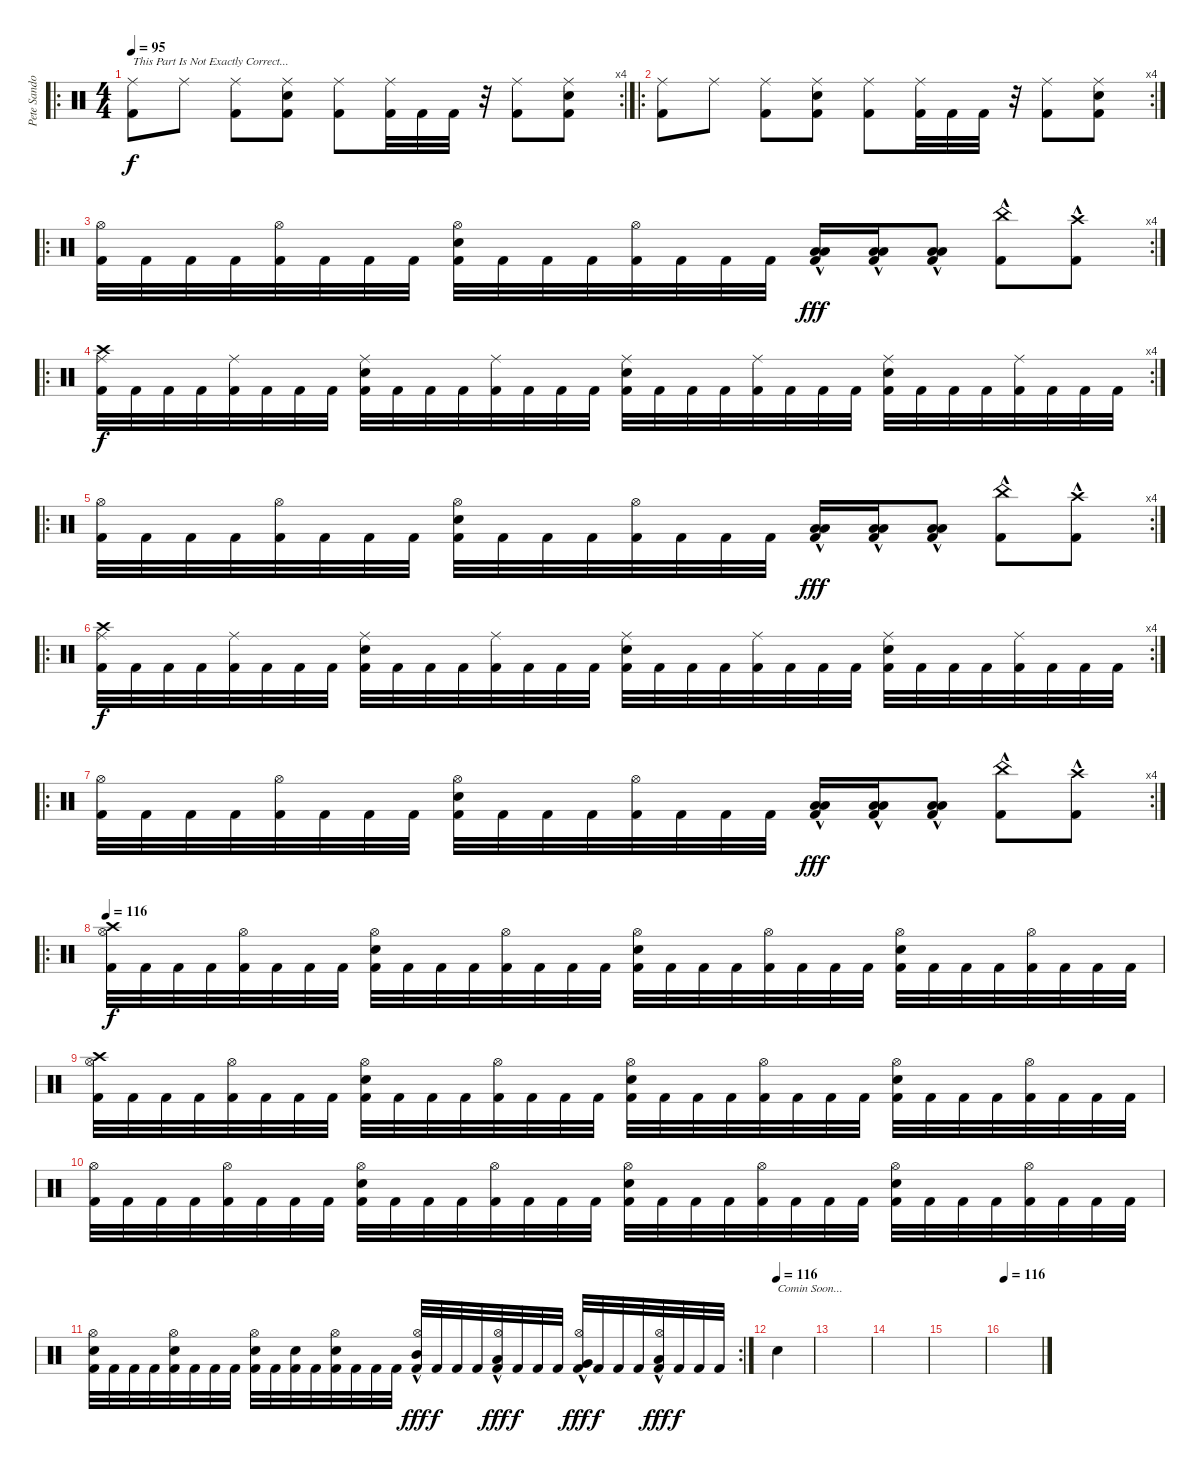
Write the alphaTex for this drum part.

\track ("Pete Sandoval" "Pete Sando") {instrument percussion}
\staff {score}
\articulation defaults
\ro
\rc 4
\ts (4 4)
\tempo 95
\clef neutral
\ks c
("Ride (middle)" "Kick (hit) 2").8{txt "This Part Is Not Exactly Correct..." dy f} "Ride (middle)".8 ("Ride (middle)" "Kick (hit) 2").8 ("Ride (middle)" "Electric Snare (hit)" "Kick (hit) 2").8 ("Ride (middle)" "Kick (hit) 2").8 ("Ride (middle)" "Kick (hit) 2").32 "Kick (hit) 2".32 "Kick (hit) 2".32 r.32 ("Ride (middle)" "Kick (hit) 2").8 ("Ride (middle)" "Electric Snare (hit)" "Kick (hit) 2").8 |
\ro
\rc 4
("Ride (middle)" "Kick (hit) 2").8 "Ride (middle)".8 ("Ride (middle)" "Kick (hit) 2").8 ("Ride (middle)" "Electric Snare (hit)" "Kick (hit) 2").8 ("Ride (middle)" "Kick (hit) 2").8 ("Ride (middle)" "Kick (hit) 2").32 "Kick (hit) 2".32 "Kick (hit) 2".32 r.32 ("Ride (middle)" "Kick (hit) 2").8 ("Ride (middle)" "Electric Snare (hit)" "Kick (hit) 2").8 |
\ro
\rc 4
("Hi-Hat (open)" "Kick (hit) 2").32 "Kick (hit) 2".32 "Kick (hit) 2".32 "Kick (hit) 2".32 ("Hi-Hat (open)" "Kick (hit) 2").32 "Kick (hit) 2".32 "Kick (hit) 2".32 "Kick (hit) 2".32 ("Hi-Hat (open)" "Electric Snare (hit)" "Kick (hit) 2").32 "Kick (hit) 2".32 "Kick (hit) 2".32 "Kick (hit) 2".32 ("Hi-Hat (open)" "Kick (hit) 2").32 "Kick (hit) 2".32 "Kick (hit) 2".32 "Kick (hit) 2".32 ("Low Tom (hit)"{hac} "Low Floor Tom (hit)"{hac} "Kick (hit) 2").16{dy fff} ("Low Tom (hit)"{hac} "Low Floor Tom (hit)"{hac} "Kick (hit) 2").16 ("Low Tom (hit)"{hac} "Low Floor Tom (hit)"{hac} "Kick (hit) 2").8 ("China (hit)"{hac} "Kick (hit) 2").8 ("Crash high (hit)"{hac} "Kick (hit) 2").8 |
\ro
\rc 4
("Crash high (hit)" "Ride (middle)" "Kick (hit) 2").32{dy f} "Kick (hit) 2".32 "Kick (hit) 2".32 "Kick (hit) 2".32 ("Ride (middle)" "Kick (hit) 2").32 "Kick (hit) 2".32 "Kick (hit) 2".32 "Kick (hit) 2".32 ("Electric Snare (hit)" "Ride (middle)" "Kick (hit) 2").32 "Kick (hit) 2".32 "Kick (hit) 2".32 "Kick (hit) 2".32 ("Ride (middle)" "Kick (hit) 2").32 "Kick (hit) 2".32 "Kick (hit) 2".32 "Kick (hit) 2".32 ("Electric Snare (hit)" "Ride (middle)" "Kick (hit) 2").32 "Kick (hit) 2".32 "Kick (hit) 2".32 "Kick (hit) 2".32 ("Ride (middle)" "Kick (hit) 2").32 "Kick (hit) 2".32 "Kick (hit) 2".32 "Kick (hit) 2".32 ("Electric Snare (hit)" "Ride (middle)" "Kick (hit) 2").32 "Kick (hit) 2".32 "Kick (hit) 2".32 "Kick (hit) 2".32 ("Ride (middle)" "Kick (hit) 2").32 "Kick (hit) 2".32 "Kick (hit) 2".32 "Kick (hit) 2".32 |
\ro
\rc 4
("Hi-Hat (open)" "Kick (hit) 2").32 "Kick (hit) 2".32 "Kick (hit) 2".32 "Kick (hit) 2".32 ("Hi-Hat (open)" "Kick (hit) 2").32 "Kick (hit) 2".32 "Kick (hit) 2".32 "Kick (hit) 2".32 ("Hi-Hat (open)" "Electric Snare (hit)" "Kick (hit) 2").32 "Kick (hit) 2".32 "Kick (hit) 2".32 "Kick (hit) 2".32 ("Hi-Hat (open)" "Kick (hit) 2").32 "Kick (hit) 2".32 "Kick (hit) 2".32 "Kick (hit) 2".32 ("Low Tom (hit)"{hac} "Low Floor Tom (hit)"{hac} "Kick (hit) 2").16{dy fff} ("Low Tom (hit)"{hac} "Low Floor Tom (hit)"{hac} "Kick (hit) 2").16 ("Low Tom (hit)"{hac} "Low Floor Tom (hit)"{hac} "Kick (hit) 2").8 ("China (hit)"{hac} "Kick (hit) 2").8 ("Crash high (hit)"{hac} "Kick (hit) 2").8 |
\ro
\rc 4
("Crash high (hit)" "Ride (middle)" "Kick (hit) 2").32{dy f} "Kick (hit) 2".32 "Kick (hit) 2".32 "Kick (hit) 2".32 ("Ride (middle)" "Kick (hit) 2").32 "Kick (hit) 2".32 "Kick (hit) 2".32 "Kick (hit) 2".32 ("Electric Snare (hit)" "Ride (middle)" "Kick (hit) 2").32 "Kick (hit) 2".32 "Kick (hit) 2".32 "Kick (hit) 2".32 ("Ride (middle)" "Kick (hit) 2").32 "Kick (hit) 2".32 "Kick (hit) 2".32 "Kick (hit) 2".32 ("Electric Snare (hit)" "Ride (middle)" "Kick (hit) 2").32 "Kick (hit) 2".32 "Kick (hit) 2".32 "Kick (hit) 2".32 ("Ride (middle)" "Kick (hit) 2").32 "Kick (hit) 2".32 "Kick (hit) 2".32 "Kick (hit) 2".32 ("Electric Snare (hit)" "Ride (middle)" "Kick (hit) 2").32 "Kick (hit) 2".32 "Kick (hit) 2".32 "Kick (hit) 2".32 ("Ride (middle)" "Kick (hit) 2").32 "Kick (hit) 2".32 "Kick (hit) 2".32 "Kick (hit) 2".32 |
\ro
\rc 4
("Hi-Hat (open)" "Kick (hit) 2").32 "Kick (hit) 2".32 "Kick (hit) 2".32 "Kick (hit) 2".32 ("Hi-Hat (open)" "Kick (hit) 2").32 "Kick (hit) 2".32 "Kick (hit) 2".32 "Kick (hit) 2".32 ("Hi-Hat (open)" "Electric Snare (hit)" "Kick (hit) 2").32 "Kick (hit) 2".32 "Kick (hit) 2".32 "Kick (hit) 2".32 ("Hi-Hat (open)" "Kick (hit) 2").32 "Kick (hit) 2".32 "Kick (hit) 2".32 "Kick (hit) 2".32 ("Low Tom (hit)"{hac} "Low Floor Tom (hit)"{hac} "Kick (hit) 2").16{dy fff} ("Low Tom (hit)"{hac} "Low Floor Tom (hit)"{hac} "Kick (hit) 2").16 ("Low Tom (hit)"{hac} "Low Floor Tom (hit)"{hac} "Kick (hit) 2").8 ("China (hit)"{hac} "Kick (hit) 2").8 ("Crash high (hit)"{hac} "Kick (hit) 2").8 |
\ro
\tempo 116
("Crash high (hit)" "Hi-Hat (open)" "Kick (hit) 2").32{dy f} "Kick (hit) 2".32 "Kick (hit) 2".32 "Kick (hit) 2".32 ("Hi-Hat (open)" "Kick (hit) 2").32 "Kick (hit) 2".32 "Kick (hit) 2".32 "Kick (hit) 2".32 ("Electric Snare (hit)" "Hi-Hat (open)" "Kick (hit) 2").32 "Kick (hit) 2".32 "Kick (hit) 2".32 "Kick (hit) 2".32 ("Hi-Hat (open)" "Kick (hit) 2").32 "Kick (hit) 2".32 "Kick (hit) 2".32 "Kick (hit) 2".32 ("Electric Snare (hit)" "Hi-Hat (open)" "Kick (hit) 2").32 "Kick (hit) 2".32 "Kick (hit) 2".32 "Kick (hit) 2".32 ("Hi-Hat (open)" "Kick (hit) 2").32 "Kick (hit) 2".32 "Kick (hit) 2".32 "Kick (hit) 2".32 ("Electric Snare (hit)" "Hi-Hat (open)" "Kick (hit) 2").32 "Kick (hit) 2".32 "Kick (hit) 2".32 "Kick (hit) 2".32 ("Hi-Hat (open)" "Kick (hit) 2").32 "Kick (hit) 2".32 "Kick (hit) 2".32 "Kick (hit) 2".32 |
("Crash high (hit)" "Hi-Hat (open)" "Kick (hit) 2").32 "Kick (hit) 2".32 "Kick (hit) 2".32 "Kick (hit) 2".32 ("Hi-Hat (open)" "Kick (hit) 2").32 "Kick (hit) 2".32 "Kick (hit) 2".32 "Kick (hit) 2".32 ("Electric Snare (hit)" "Hi-Hat (open)" "Kick (hit) 2").32 "Kick (hit) 2".32 "Kick (hit) 2".32 "Kick (hit) 2".32 ("Hi-Hat (open)" "Kick (hit) 2").32 "Kick (hit) 2".32 "Kick (hit) 2".32 "Kick (hit) 2".32 ("Electric Snare (hit)" "Hi-Hat (open)" "Kick (hit) 2").32 "Kick (hit) 2".32 "Kick (hit) 2".32 "Kick (hit) 2".32 ("Hi-Hat (open)" "Kick (hit) 2").32 "Kick (hit) 2".32 "Kick (hit) 2".32 "Kick (hit) 2".32 ("Electric Snare (hit)" "Hi-Hat (open)" "Kick (hit) 2").32 "Kick (hit) 2".32 "Kick (hit) 2".32 "Kick (hit) 2".32 ("Hi-Hat (open)" "Kick (hit) 2").32 "Kick (hit) 2".32 "Kick (hit) 2".32 "Kick (hit) 2".32 |
("Hi-Hat (open)" "Kick (hit) 2").32 "Kick (hit) 2".32 "Kick (hit) 2".32 "Kick (hit) 2".32 ("Hi-Hat (open)" "Kick (hit) 2").32 "Kick (hit) 2".32 "Kick (hit) 2".32 "Kick (hit) 2".32 ("Electric Snare (hit)" "Hi-Hat (open)" "Kick (hit) 2").32 "Kick (hit) 2".32 "Kick (hit) 2".32 "Kick (hit) 2".32 ("Hi-Hat (open)" "Kick (hit) 2").32 "Kick (hit) 2".32 "Kick (hit) 2".32 "Kick (hit) 2".32 ("Electric Snare (hit)" "Hi-Hat (open)" "Kick (hit) 2").32 "Kick (hit) 2".32 "Kick (hit) 2".32 "Kick (hit) 2".32 ("Hi-Hat (open)" "Kick (hit) 2").32 "Kick (hit) 2".32 "Kick (hit) 2".32 "Kick (hit) 2".32 ("Electric Snare (hit)" "Hi-Hat (open)" "Kick (hit) 2").32 "Kick (hit) 2".32 "Kick (hit) 2".32 "Kick (hit) 2".32 ("Hi-Hat (open)" "Kick (hit) 2").32 "Kick (hit) 2".32 "Kick (hit) 2".32 "Kick (hit) 2".32 |
\rc 2
("Electric Snare (hit)" "Hi-Hat (open)" "Kick (hit) 2").32 "Kick (hit) 2".32 "Kick (hit) 2".32 "Kick (hit) 2".32 ("Electric Snare (hit)" "Hi-Hat (open)" "Kick (hit) 2").32 "Kick (hit) 2".32 "Kick (hit) 2".32 "Kick (hit) 2".32 ("Electric Snare (hit)" "Hi-Hat (open)" "Kick (hit) 2").32 "Kick (hit) 2".32 ("Electric Snare (hit)" "Kick (hit) 2").32 "Kick (hit) 2".32 ("Electric Snare (hit)" "Hi-Hat (open)" "Kick (hit) 2").32 "Kick (hit) 2".32 "Kick (hit) 2".32 "Kick (hit) 2".32 ("Mid Tom (hit)"{hac} "Hi-Hat (open)" "Kick (hit) 2").32{dy fff} "Kick (hit) 2".32{dy f} "Kick (hit) 2".32 "Kick (hit) 2".32 ("Low Tom (hit)"{hac} "Hi-Hat (open)" "Kick (hit) 2").32{dy fff} "Kick (hit) 2".32{dy f} "Kick (hit) 2".32 "Kick (hit) 2".32 ("Very Low Tom (hit)"{hac} "Hi-Hat (open)" "Kick (hit) 2").32{dy fff} "Kick (hit) 2".32{dy f} "Kick (hit) 2".32 "Kick (hit) 2".32 ("Low Floor Tom (hit)"{hac} "Hi-Hat (open)" "Kick (hit) 2").32{dy fff} "Kick (hit) 2".32{dy f} "Kick (hit) 2".32 "Kick (hit) 2".32 |
\tempo (116)
"Snare (hit)".4{txt "Comin Soon..."} |
|
|
|
\tempo 116
